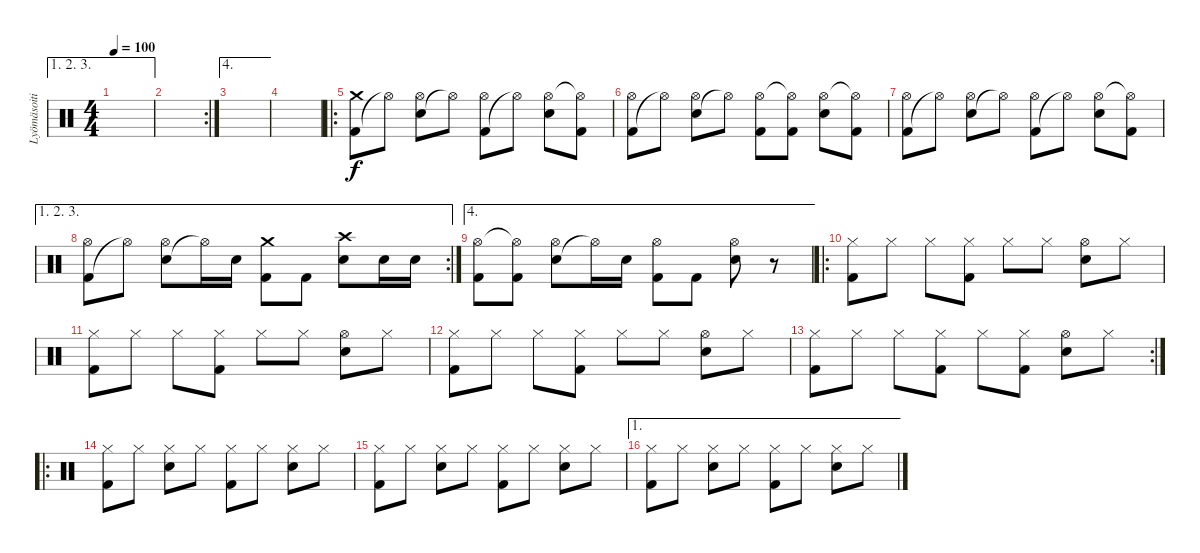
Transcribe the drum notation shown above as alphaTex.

\track ("Lyömäsoitin" "Lyömäsoiti") {instrument percussion}
\staff {score}
\articulation defaults
\ae (1 2 3)
\ts (4 4)
\tempo 100
\clef neutral
\ks c
|
\rc 2
|
\ae 4
|
|
\ro
("Kick (hit) 2" "Crash medium (hit)").8 "Hi-Hat (open)"{t}.8 ("Electric Snare (hit)" "Hi-Hat (open)").8 "Hi-Hat (open)"{t}.8 ("Kick (hit) 2" "Hi-Hat (open)").8 "Hi-Hat (open)"{t}.8 ("Electric Snare (hit)" "Hi-Hat (open)").8 ("Kick (hit) 2" "Hi-Hat (open)"{t}).8 |
("Kick (hit) 2" "Hi-Hat (open)").8 "Hi-Hat (open)"{t}.8 ("Electric Snare (hit)" "Hi-Hat (open)").8 "Hi-Hat (open)"{t}.8 ("Kick (hit) 2" "Hi-Hat (open)").8 ("Kick (hit) 2" "Hi-Hat (open)"{t}).8 ("Electric Snare (hit)" "Hi-Hat (open)").8 ("Kick (hit) 2" "Hi-Hat (open)"{t}).8 |
("Kick (hit) 2" "Hi-Hat (open)").8 "Hi-Hat (open)"{t}.8 ("Electric Snare (hit)" "Hi-Hat (open)").8 "Hi-Hat (open)"{t}.8 ("Kick (hit) 2" "Hi-Hat (open)").8 "Hi-Hat (open)"{t}.8 ("Electric Snare (hit)" "Hi-Hat (open)").8 ("Kick (hit) 2" "Hi-Hat (open)"{t}).8 |
\ae (1 2 3)
\rc 2
("Kick (hit) 2" "Hi-Hat (open)").8 "Hi-Hat (open)"{t}.8 ("Electric Snare (hit)" "Hi-Hat (open)").8 "Hi-Hat (open)"{t}.16 "Electric Snare (hit)".16 ("Kick (hit) 2" "Crash medium (hit)").8 "Kick (hit) 2".8 ("Electric Snare (hit)" "Crash high (hit)").8 "Electric Snare (hit)".16 "Electric Snare (hit)".16 |
\ae 4
("Kick (hit) 2" "Hi-Hat (open)").8 ("Kick (hit) 2" "Hi-Hat (open)"{t}).8 ("Electric Snare (hit)" "Hi-Hat (open)").8 "Hi-Hat (open)"{t}.16 "Electric Snare (hit)".16 ("Kick (hit) 2" "Hi-Hat (open)").8 "Kick (hit) 2".8 ("Electric Snare (hit)" "Hi-Hat (open)").8 r.8 |
\ro
("Kick (hit) 2" "Hi-Hat (closed)").8 "Hi-Hat (closed)".8 "Hi-Hat (closed)".8 ("Kick (hit) 2" "Hi-Hat (closed)").8 "Hi-Hat (closed)".8 "Hi-Hat (closed)".8 ("Electric Snare (hit)" "Hi-Hat (open)").8 "Hi-Hat (closed)".8 |
("Kick (hit) 2" "Hi-Hat (closed)").8 "Hi-Hat (closed)".8 "Hi-Hat (closed)".8 ("Kick (hit) 2" "Hi-Hat (closed)").8 "Hi-Hat (closed)".8 "Hi-Hat (closed)".8 ("Electric Snare (hit)" "Hi-Hat (open)").8 "Hi-Hat (closed)".8 |
("Kick (hit) 2" "Hi-Hat (closed)").8 "Hi-Hat (closed)".8 "Hi-Hat (closed)".8 ("Kick (hit) 2" "Hi-Hat (closed)").8 "Hi-Hat (closed)".8 "Hi-Hat (closed)".8 ("Electric Snare (hit)" "Hi-Hat (open)").8 "Hi-Hat (closed)".8 |
\rc 2
("Kick (hit) 2" "Hi-Hat (closed)").8 "Hi-Hat (closed)".8 "Hi-Hat (closed)".8 ("Kick (hit) 2" "Hi-Hat (closed)").8 "Hi-Hat (closed)".8 ("Kick (hit) 2" "Hi-Hat (closed)").8 ("Electric Snare (hit)" "Hi-Hat (open)").8 "Hi-Hat (closed)".8 |
\ro
("Kick (hit) 2" "Hi-Hat (closed)").8 "Hi-Hat (closed)".8 ("Electric Snare (hit)" "Hi-Hat (closed)").8 "Hi-Hat (closed)".8 ("Kick (hit) 2" "Hi-Hat (closed)").8 "Hi-Hat (closed)".8 ("Electric Snare (hit)" "Hi-Hat (closed)").8 "Hi-Hat (closed)".8 |
("Kick (hit) 2" "Hi-Hat (closed)").8 "Hi-Hat (closed)".8 ("Electric Snare (hit)" "Hi-Hat (closed)").8 "Hi-Hat (closed)".8 ("Kick (hit) 2" "Hi-Hat (closed)").8 "Hi-Hat (closed)".8 ("Electric Snare (hit)" "Hi-Hat (closed)").8 "Hi-Hat (closed)".8 |
\ae 1
("Kick (hit) 2" "Hi-Hat (closed)").8 "Hi-Hat (closed)".8 ("Electric Snare (hit)" "Hi-Hat (closed)").8 "Hi-Hat (closed)".8 ("Kick (hit) 2" "Hi-Hat (closed)").8 "Hi-Hat (closed)".8 ("Electric Snare (hit)" "Hi-Hat (closed)").8 "Hi-Hat (closed)".8
